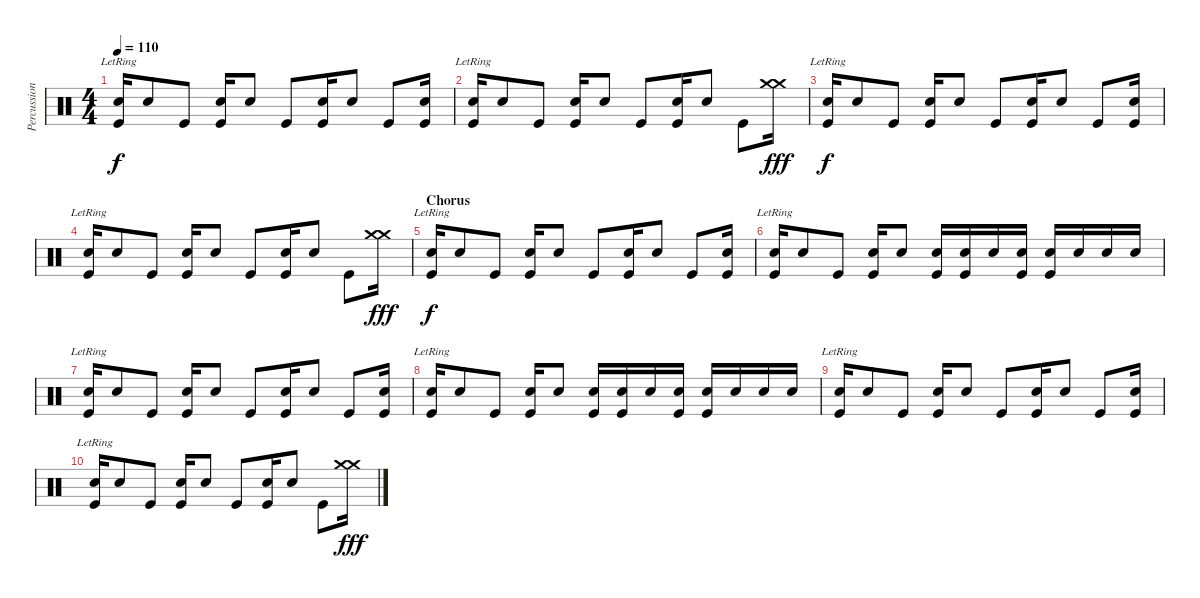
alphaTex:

\track ("Percussion" "Percussion") {instrument percussion}
\staff {score}
\articulation defaults
\ts (4 4)
\tempo 110
\clef neutral
\ks c
("Electric Snare (hit)" "Kick (hit)"{lr}).16{dy f} "Electric Snare (hit)".8 "Kick (hit)".8 ("Electric Snare (hit)" "Kick (hit)").16 "Electric Snare (hit)".8 "Kick (hit)".8 ("Electric Snare (hit)" "Kick (hit)").16 "Electric Snare (hit)".8 "Kick (hit)".8 ("Electric Snare (hit)" "Kick (hit)").16 |
("Electric Snare (hit)" "Kick (hit)"{lr}).16 "Electric Snare (hit)".8 "Kick (hit)".8 ("Electric Snare (hit)" "Kick (hit)").16 "Electric Snare (hit)".8 "Kick (hit)".8 ("Electric Snare (hit)" "Kick (hit)").16 "Electric Snare (hit)".8 "Kick (hit)".8 ("Crash medium (hit)" "Crash medium (hit)").16{dy fff} |
("Electric Snare (hit)" "Kick (hit)"{lr}).16{dy f} "Electric Snare (hit)".8 "Kick (hit)".8 ("Electric Snare (hit)" "Kick (hit)").16 "Electric Snare (hit)".8 "Kick (hit)".8 ("Electric Snare (hit)" "Kick (hit)").16 "Electric Snare (hit)".8 "Kick (hit)".8 ("Electric Snare (hit)" "Kick (hit)").16 |
("Electric Snare (hit)" "Kick (hit)"{lr}).16 "Electric Snare (hit)".8 "Kick (hit)".8 ("Electric Snare (hit)" "Kick (hit)").16 "Electric Snare (hit)".8 "Kick (hit)".8 ("Electric Snare (hit)" "Kick (hit)").16 "Electric Snare (hit)".8 "Kick (hit)".8 ("Crash medium (hit)" "Crash medium (hit)").16{dy fff} |
\section ("" "Chorus")
("Electric Snare (hit)" "Kick (hit)"{lr}).16{dy f} "Electric Snare (hit)".8 "Kick (hit)".8 ("Electric Snare (hit)" "Kick (hit)").16 "Electric Snare (hit)".8 "Kick (hit)".8 ("Electric Snare (hit)" "Kick (hit)").16 "Electric Snare (hit)".8 "Kick (hit)".8 ("Electric Snare (hit)" "Kick (hit)").16 |
("Electric Snare (hit)" "Kick (hit)"{lr}).16 "Electric Snare (hit)".8 "Kick (hit)".8 ("Electric Snare (hit)" "Kick (hit)").16 "Electric Snare (hit)".8 ("Electric Snare (hit)" "Kick (hit)").16 ("Electric Snare (hit)" "Kick (hit)").16 "Electric Snare (hit)".16 ("Electric Snare (hit)" "Kick (hit)").16 ("Electric Snare (hit)" "Kick (hit)").16 "Electric Snare (hit)".16 "Electric Snare (hit)".16 "Electric Snare (hit)".16 |
("Electric Snare (hit)" "Kick (hit)"{lr}).16 "Electric Snare (hit)".8 "Kick (hit)".8 ("Electric Snare (hit)" "Kick (hit)").16 "Electric Snare (hit)".8 "Kick (hit)".8 ("Electric Snare (hit)" "Kick (hit)").16 "Electric Snare (hit)".8 "Kick (hit)".8 ("Electric Snare (hit)" "Kick (hit)").16 |
("Electric Snare (hit)" "Kick (hit)"{lr}).16 "Electric Snare (hit)".8 "Kick (hit)".8 ("Electric Snare (hit)" "Kick (hit)").16 "Electric Snare (hit)".8 ("Electric Snare (hit)" "Kick (hit)").16 ("Electric Snare (hit)" "Kick (hit)").16 "Electric Snare (hit)".16 ("Electric Snare (hit)" "Kick (hit)").16 ("Electric Snare (hit)" "Kick (hit)").16 "Electric Snare (hit)".16 "Electric Snare (hit)".16 "Electric Snare (hit)".16 |
("Electric Snare (hit)" "Kick (hit)"{lr}).16 "Electric Snare (hit)".8 "Kick (hit)".8 ("Electric Snare (hit)" "Kick (hit)").16 "Electric Snare (hit)".8 "Kick (hit)".8 ("Electric Snare (hit)" "Kick (hit)").16 "Electric Snare (hit)".8 "Kick (hit)".8 ("Electric Snare (hit)" "Kick (hit)").16 |
("Electric Snare (hit)" "Kick (hit)"{lr}).16 "Electric Snare (hit)".8 "Kick (hit)".8 ("Electric Snare (hit)" "Kick (hit)").16 "Electric Snare (hit)".8 "Kick (hit)".8 ("Electric Snare (hit)" "Kick (hit)").16 "Electric Snare (hit)".8 "Kick (hit)".8 ("Crash medium (hit)" "Crash medium (hit)").16{dy fff}
